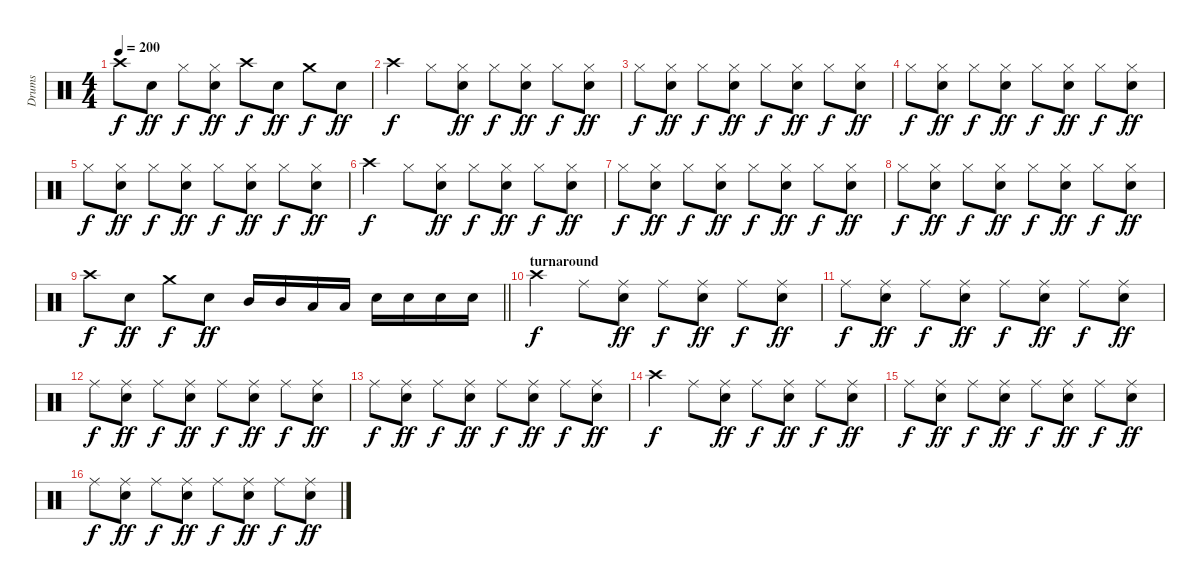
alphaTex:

\track ("Drums" "Drums") {instrument percussion}
\staff {score}
\articulation defaults
\ts (4 4)
\tempo 200
\clef neutral
\ks c "Crash high (hit)".8{dy f} "Snare (hit) 2".8{dy ff} "Hi-Hat (closed)".8{dy f}
("Hi-Hat (closed)" "Snare (hit) 2").8{dy ff} "Crash high (hit)".8{dy f} "Snare (hit) 2".8{dy ff} "Crash medium (hit)".8{dy f} "Snare (hit) 2".8{dy ff} |
"Crash high (hit)".4{dy f} "Hi-Hat (closed)".8 ("Hi-Hat (closed)" "Snare (hit) 2").8{dy ff} "Hi-Hat (closed)".8{dy f} ("Hi-Hat (closed)" "Snare (hit) 2").8{dy ff} "Hi-Hat (closed)".8{dy f} ("Hi-Hat (closed)" "Snare (hit) 2").8{dy ff} |
"Hi-Hat (closed)".8{dy f} ("Hi-Hat (closed)" "Snare (hit) 2").8{dy ff} "Hi-Hat (closed)".8{dy f} ("Hi-Hat (closed)" "Snare (hit) 2").8{dy ff} "Hi-Hat (closed)".8{dy f} ("Hi-Hat (closed)" "Snare (hit) 2").8{dy ff} "Hi-Hat (closed)".8{dy f} ("Hi-Hat (closed)" "Snare (hit) 2").8{dy ff} |
"Hi-Hat (closed)".8{dy f} ("Hi-Hat (closed)" "Snare (hit) 2").8{dy ff} "Hi-Hat (closed)".8{dy f} ("Hi-Hat (closed)" "Snare (hit) 2").8{dy ff} "Hi-Hat (closed)".8{dy f} ("Hi-Hat (closed)" "Snare (hit) 2").8{dy ff} "Hi-Hat (closed)".8{dy f} ("Hi-Hat (closed)" "Snare (hit) 2").8{dy ff} |
"Hi-Hat (closed)".8{dy f} ("Hi-Hat (closed)" "Snare (hit) 2").8{dy ff} "Hi-Hat (closed)".8{dy f} ("Hi-Hat (closed)" "Snare (hit) 2").8{dy ff} "Hi-Hat (closed)".8{dy f} ("Hi-Hat (closed)" "Snare (hit) 2").8{dy ff} "Hi-Hat (closed)".8{dy f} ("Hi-Hat (closed)" "Snare (hit) 2").8{dy ff} |
"Crash high (hit)".4{dy f} "Hi-Hat (closed)".8 ("Hi-Hat (closed)" "Snare (hit) 2").8{dy ff} "Hi-Hat (closed)".8{dy f} ("Hi-Hat (closed)" "Snare (hit) 2").8{dy ff} "Hi-Hat (closed)".8{dy f} ("Hi-Hat (closed)" "Snare (hit) 2").8{dy ff} |
"Hi-Hat (closed)".8{dy f} ("Hi-Hat (closed)" "Snare (hit) 2").8{dy ff} "Hi-Hat (closed)".8{dy f} ("Hi-Hat (closed)" "Snare (hit) 2").8{dy ff} "Hi-Hat (closed)".8{dy f} ("Hi-Hat (closed)" "Snare (hit) 2").8{dy ff} "Hi-Hat (closed)".8{dy f} ("Hi-Hat (closed)" "Snare (hit) 2").8{dy ff} |
"Hi-Hat (closed)".8{dy f} ("Hi-Hat (closed)" "Snare (hit) 2").8{dy ff} "Hi-Hat (closed)".8{dy f} ("Hi-Hat (closed)" "Snare (hit) 2").8{dy ff} "Hi-Hat (closed)".8{dy f} ("Hi-Hat (closed)" "Snare (hit) 2").8{dy ff} "Hi-Hat (closed)".8{dy f} ("Hi-Hat (closed)" "Snare (hit) 2").8{dy ff} |
\barLineRight lightlight "Crash high (hit)".8{dy f} "Snare (hit) 2".8{dy ff} "Crash medium (hit)".8{dy f} "Snare (hit) 2".8{dy ff} "Mid Tom (hit)".16 "Mid Tom (hit)".16 "Low Tom (hit)".16 "Low Tom (hit)".16 "Snare (hit) 2".16 "Snare (hit) 2".16 "Snare (hit) 2".16 "Snare (hit) 2".16
|
\section ("" "turnaround")
"Crash high (hit)".4{dy f} "Ride (middle)".8 ("Ride (middle)" "Snare (hit) 2").8{dy ff} "Ride (middle)".8{dy f} ("Ride (middle)" "Snare (hit) 2").8{dy ff} "Ride (middle)".8{dy f} ("Ride (middle)" "Snare (hit) 2").8{dy ff} |
"Ride (middle)".8{dy f} ("Ride (middle)" "Snare (hit) 2").8{dy ff} "Ride (middle)".8{dy f} ("Ride (middle)" "Snare (hit) 2").8{dy ff} "Ride (middle)".8{dy f} ("Ride (middle)" "Snare (hit) 2").8{dy ff} "Ride (middle)".8{dy f} ("Ride (middle)" "Snare (hit) 2").8{dy ff} |
"Ride (middle)".8{dy f} ("Ride (middle)" "Snare (hit) 2").8{dy ff} "Ride (middle)".8{dy f} ("Ride (middle)" "Snare (hit) 2").8{dy ff} "Ride (middle)".8{dy f} ("Ride (middle)" "Snare (hit) 2").8{dy ff} "Ride (middle)".8{dy f} ("Ride (middle)" "Snare (hit) 2").8{dy ff} |
"Ride (middle)".8{dy f} ("Ride (middle)" "Snare (hit) 2").8{dy ff} "Ride (middle)".8{dy f} ("Ride (middle)" "Snare (hit) 2").8{dy ff} "Ride (middle)".8{dy f} ("Ride (middle)" "Snare (hit) 2").8{dy ff} "Ride (middle)".8{dy f} ("Ride (middle)" "Snare (hit) 2").8{dy ff} |
"Crash high (hit)".4{dy f} "Ride (middle)".8 ("Ride (middle)" "Snare (hit) 2").8{dy ff} "Ride (middle)".8{dy f} ("Ride (middle)" "Snare (hit) 2").8{dy ff} "Ride (middle)".8{dy f} ("Ride (middle)" "Snare (hit) 2").8{dy ff} |
"Ride (middle)".8{dy f} ("Ride (middle)" "Snare (hit) 2").8{dy ff} "Ride (middle)".8{dy f} ("Ride (middle)" "Snare (hit) 2").8{dy ff} "Ride (middle)".8{dy f} ("Ride (middle)" "Snare (hit) 2").8{dy ff} "Ride (middle)".8{dy f} ("Ride (middle)" "Snare (hit) 2").8{dy ff} |
"Ride (middle)".8{dy f} ("Ride (middle)" "Snare (hit) 2").8{dy ff} "Ride (middle)".8{dy f} ("Ride (middle)" "Snare (hit) 2").8{dy ff} "Ride (middle)".8{dy f} ("Ride (middle)" "Snare (hit) 2").8{dy ff} "Ride (middle)".8{dy f} ("Ride (middle)" "Snare (hit) 2").8{dy ff}
